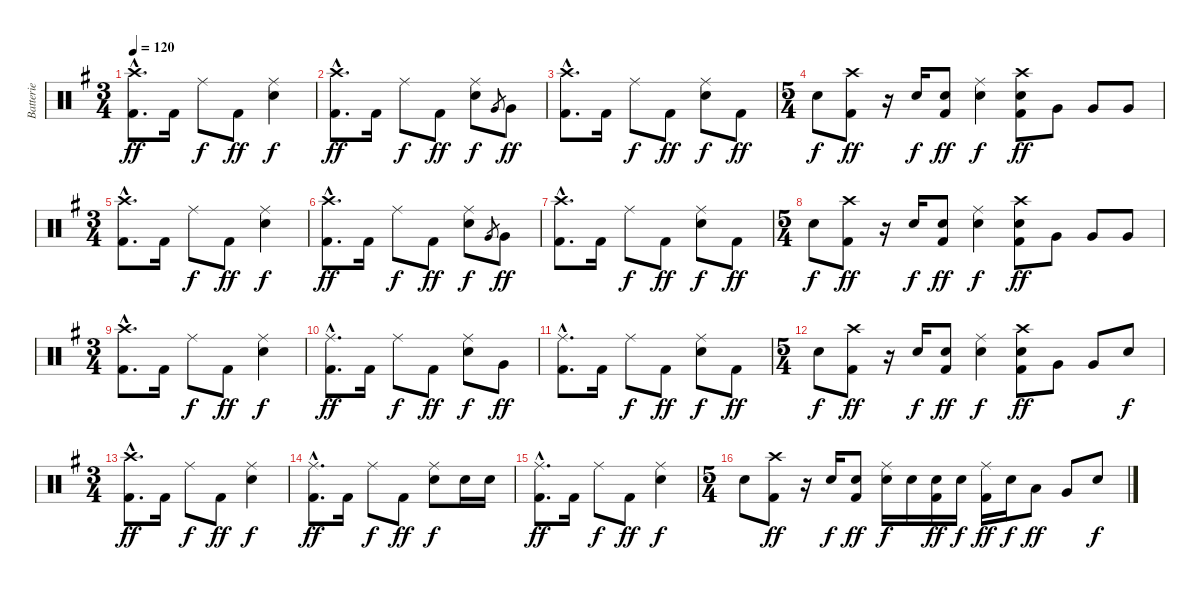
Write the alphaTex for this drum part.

\track ("Batterie" "Batterie") {instrument percussion}
\staff {score}
\articulation defaults
\ts (3 4)
\tempo 120
\clef neutral
\ks g
("Crash high (hit)"{hac} "Kick (hit) 2"{hac}).8{d dy ff} "Kick (hit) 2".16 "Ride (middle)".8{dy f} "Kick (hit) 2".8{dy ff} ("Ride (middle)" "Snare (hit) 2").4{dy f} |
("Crash high (hit)"{hac} "Kick (hit) 2"{hac}).8{d dy ff} "Kick (hit) 2".16 "Ride (middle)".8{dy f} "Kick (hit) 2".8{dy ff} ("Ride (middle)" "Snare (hit) 2").8{dy f} "Very Low Tom (hit)".8{gr} "Very Low Tom (hit)".8{dy ff} |
("Crash high (hit)"{hac} "Kick (hit) 2"{hac}).8{d} "Kick (hit) 2".16 "Ride (middle)".8{dy f} "Kick (hit) 2".8{dy ff} ("Ride (middle)" "Snare (hit) 2").8{dy f} "Kick (hit) 2".8{dy ff} |
\ts (5 4)
"Snare (hit) 2".8{dy f} ("Crash high (hit)" "Kick (hit) 2").8{dy ff} r.16 "Snare (hit) 2".16{dy f} ("Snare (hit) 2" "Kick (hit) 2").8{dy ff} ("Ride (middle)" "Snare (hit) 2").4{dy f} ("Crash high (hit)" "Snare (hit) 2" "Kick (hit) 2").8{dy ff} "Very Low Tom (hit)".8 "Very Low Tom (hit)".8 "Very Low Tom (hit)".8 |
\ts (3 4)
("Crash high (hit)"{hac} "Kick (hit) 2"{hac}).8{d} "Kick (hit) 2".16 "Ride (middle)".8{dy f} "Kick (hit) 2".8{dy ff} ("Ride (middle)" "Snare (hit) 2").4{dy f} |
("Crash high (hit)"{hac} "Kick (hit) 2"{hac}).8{d dy ff} "Kick (hit) 2".16 "Ride (middle)".8{dy f} "Kick (hit) 2".8{dy ff} ("Ride (middle)" "Snare (hit) 2").8{dy f} "Very Low Tom (hit)".8{gr} "Very Low Tom (hit)".8{dy ff} |
("Crash high (hit)"{hac} "Kick (hit) 2"{hac}).8{d} "Kick (hit) 2".16 "Ride (middle)".8{dy f} "Kick (hit) 2".8{dy ff} ("Ride (middle)" "Snare (hit) 2").8{dy f} "Kick (hit) 2".8{dy ff} |
\ts (5 4)
"Snare (hit) 2".8{dy f} ("Crash high (hit)" "Kick (hit) 2").8{dy ff} r.16 "Snare (hit) 2".16{dy f} ("Snare (hit) 2" "Kick (hit) 2").8{dy ff} ("Ride (middle)" "Snare (hit) 2").4{dy f} ("Crash high (hit)" "Snare (hit) 2" "Kick (hit) 2").8{dy ff} "Very Low Tom (hit)".8 "Very Low Tom (hit)".8 "Very Low Tom (hit)".8 |
\ts (3 4)
("Crash high (hit)"{hac} "Kick (hit) 2"{hac}).8{d} "Kick (hit) 2".16 "Ride (middle)".8{dy f} "Kick (hit) 2".8{dy ff} ("Ride (middle)" "Snare (hit) 2").4{dy f} |
("Ride (middle)"{hac} "Kick (hit) 2"{hac}).8{d dy ff} "Kick (hit) 2".16 "Ride (middle)".8{dy f} "Kick (hit) 2".8{dy ff} ("Ride (middle)" "Snare (hit) 2").8{dy f} "Very Low Tom (hit)".8{dy ff} |
("Ride (middle)"{hac} "Kick (hit) 2"{hac}).8{d} "Kick (hit) 2".16 "Ride (middle)".8{dy f} "Kick (hit) 2".8{dy ff} ("Ride (middle)" "Snare (hit) 2").8{dy f} "Kick (hit) 2".8{dy ff} |
\ts (5 4)
"Snare (hit) 2".8{dy f} ("Crash high (hit)" "Kick (hit) 2").8{dy ff} r.16 "Snare (hit) 2".16{dy f} ("Snare (hit) 2" "Kick (hit) 2").8{dy ff} ("Ride (middle)" "Snare (hit) 2").4{dy f} ("Crash high (hit)" "Snare (hit) 2" "Kick (hit) 2").8{dy ff} "Very Low Tom (hit)".8 "Very Low Tom (hit)".8 "Snare (hit) 2".8{dy f} |
\ts (3 4)
("Crash high (hit)"{hac} "Kick (hit) 2"{hac}).8{d dy ff} "Kick (hit) 2".16 "Ride (middle)".8{dy f} "Kick (hit) 2".8{dy ff} ("Ride (middle)" "Snare (hit) 2").4{dy f} |
("Ride (middle)"{hac} "Kick (hit) 2"{hac}).8{d dy ff} "Kick (hit) 2".16 "Ride (middle)".8{dy f} "Kick (hit) 2".8{dy ff} ("Ride (middle)" "Snare (hit) 2").8{dy f} "Snare (hit) 2".16 "Snare (hit) 2".16 |
("Ride (middle)"{hac} "Kick (hit) 2"{hac}).8{d dy ff} "Kick (hit) 2".16 "Ride (middle)".8{dy f} "Kick (hit) 2".8{dy ff} ("Ride (middle)" "Snare (hit) 2").4{dy f} |
\ts (5 4)
"Snare (hit) 2".8 ("Crash high (hit)" "Kick (hit) 2").8{dy ff} r.16 "Snare (hit) 2".16{dy f} ("Snare (hit) 2" "Kick (hit) 2").8{dy ff} ("Ride (middle)" "Snare (hit) 2").16{dy f} "Snare (hit) 2".16 ("Snare (hit) 2" "Kick (hit) 2").16{dy ff} "Snare (hit) 2".16{dy f} ("Ride (middle)" "Kick (hit) 2").16{dy ff} "Snare (hit) 2".16{dy f} "Low Tom (hit)".8{dy ff} "Very Low Tom (hit)".8 "Snare (hit) 2".8{dy f}
